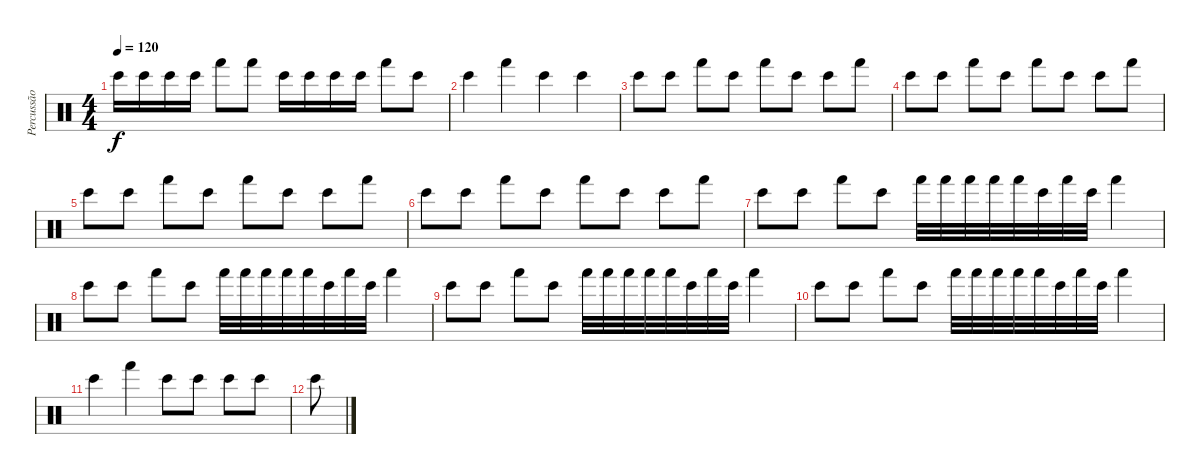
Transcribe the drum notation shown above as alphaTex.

\track ("Percussão" "Percussão") {instrument percussion}
\staff {score}
\articulation defaults
\ts (4 4)
\tempo 120
\clef neutral
\ks c "Bongo High (hit)".16{dy f} "Bongo High (hit)".16 "Bongo High (hit)".16 "Bongo High (hit)".16 "Hand (hit)".8 "Hand (hit)".8 "Bongo High (hit)".16 "Bongo High (hit)".16 "Bongo High (hit)".16 "Bongo High (hit)".16 "Hand (hit)".8 "Bongo High (hit)".8
|
"Bongo High (hit)".4 "Hand (hit)".4 "Bongo High (hit)".4 "Bongo High (hit)".4 |
"Bongo High (hit)".8 "Bongo High (hit)".8 "Hand (hit)".8 "Bongo High (hit)".8 "Hand (hit)".8 "Bongo High (hit)".8 "Bongo High (hit)".8 "Hand (hit)".8 |
"Bongo High (hit)".8 "Bongo High (hit)".8 "Hand (hit)".8 "Bongo High (hit)".8 "Hand (hit)".8 "Bongo High (hit)".8 "Bongo High (hit)".8 "Hand (hit)".8 |
"Bongo High (hit)".8 "Bongo High (hit)".8 "Hand (hit)".8 "Bongo High (hit)".8 "Hand (hit)".8 "Bongo High (hit)".8 "Bongo High (hit)".8 "Hand (hit)".8 |
"Bongo High (hit)".8 "Bongo High (hit)".8 "Hand (hit)".8 "Bongo High (hit)".8 "Hand (hit)".8 "Bongo High (hit)".8 "Bongo High (hit)".8 "Hand (hit)".8 |
"Bongo High (hit)".8 "Bongo High (hit)".8 "Hand (hit)".8 "Bongo High (hit)".8 "Hand (hit)".32 "Hand (hit)".32 "Hand (hit)".32 "Hand (hit)".32 "Hand (hit)".32 "Bongo High (hit)".32 "Hand (hit)".32 "Bongo High (hit)".32 "Hand (hit)".4 |
"Bongo High (hit)".8 "Bongo High (hit)".8 "Hand (hit)".8 "Bongo High (hit)".8 "Hand (hit)".32 "Hand (hit)".32 "Hand (hit)".32 "Hand (hit)".32 "Hand (hit)".32 "Bongo High (hit)".32 "Hand (hit)".32 "Bongo High (hit)".32 "Hand (hit)".4 |
"Bongo High (hit)".8 "Bongo High (hit)".8 "Hand (hit)".8 "Bongo High (hit)".8 "Hand (hit)".32 "Hand (hit)".32 "Hand (hit)".32 "Hand (hit)".32 "Hand (hit)".32 "Bongo High (hit)".32 "Hand (hit)".32 "Bongo High (hit)".32 "Hand (hit)".4 |
"Bongo High (hit)".8 "Bongo High (hit)".8 "Hand (hit)".8 "Bongo High (hit)".8 "Hand (hit)".32 "Hand (hit)".32 "Hand (hit)".32 "Hand (hit)".32 "Hand (hit)".32 "Bongo High (hit)".32 "Hand (hit)".32 "Bongo High (hit)".32 "Hand (hit)".4 |
"Bongo High (hit)".4 "Hand (hit)".4 "Bongo High (hit)".8 "Bongo High (hit)".8 "Bongo High (hit)".8 "Bongo High (hit)".8 |
"Bongo High (hit)".8
